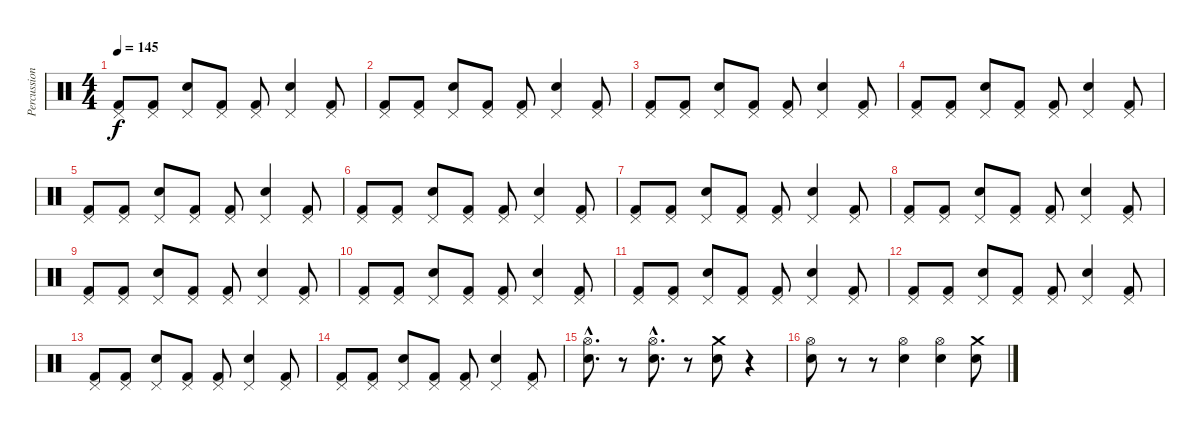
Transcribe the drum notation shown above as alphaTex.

\track ("Percussion" "Percussion") {instrument percussion}
\staff {score}
\articulation defaults
\ts (4 4)
\tempo 145
\clef neutral
\ks c
("Pedal Hi-Hat (hit)" "Kick (hit) 2").8{dy f} ("Pedal Hi-Hat (hit)" "Kick (hit) 2").8 ("Pedal Hi-Hat (hit)" "Snare (hit) 2").8 ("Pedal Hi-Hat (hit)" "Kick (hit) 2").8 ("Pedal Hi-Hat (hit)" "Kick (hit) 2").8 ("Pedal Hi-Hat (hit)" "Snare (hit) 2").4 ("Pedal Hi-Hat (hit)" "Kick (hit) 2").8 |
("Pedal Hi-Hat (hit)" "Kick (hit) 2").8 ("Pedal Hi-Hat (hit)" "Kick (hit) 2").8 ("Pedal Hi-Hat (hit)" "Snare (hit) 2").8 ("Pedal Hi-Hat (hit)" "Kick (hit) 2").8 ("Pedal Hi-Hat (hit)" "Kick (hit) 2").8 ("Pedal Hi-Hat (hit)" "Snare (hit) 2").4 ("Pedal Hi-Hat (hit)" "Kick (hit) 2").8 |
("Pedal Hi-Hat (hit)" "Kick (hit) 2").8 ("Pedal Hi-Hat (hit)" "Kick (hit) 2").8 ("Pedal Hi-Hat (hit)" "Snare (hit) 2").8 ("Pedal Hi-Hat (hit)" "Kick (hit) 2").8 ("Pedal Hi-Hat (hit)" "Kick (hit) 2").8 ("Pedal Hi-Hat (hit)" "Snare (hit) 2").4 ("Pedal Hi-Hat (hit)" "Kick (hit) 2").8 |
("Pedal Hi-Hat (hit)" "Kick (hit) 2").8 ("Pedal Hi-Hat (hit)" "Kick (hit) 2").8 ("Pedal Hi-Hat (hit)" "Snare (hit) 2").8 ("Pedal Hi-Hat (hit)" "Kick (hit) 2").8 ("Pedal Hi-Hat (hit)" "Kick (hit) 2").8 ("Pedal Hi-Hat (hit)" "Snare (hit) 2").4 ("Pedal Hi-Hat (hit)" "Kick (hit) 2").8 |
("Pedal Hi-Hat (hit)" "Kick (hit) 2").8 ("Pedal Hi-Hat (hit)" "Kick (hit) 2").8 ("Pedal Hi-Hat (hit)" "Snare (hit) 2").8 ("Pedal Hi-Hat (hit)" "Kick (hit) 2").8 ("Pedal Hi-Hat (hit)" "Kick (hit) 2").8 ("Pedal Hi-Hat (hit)" "Snare (hit) 2").4 ("Pedal Hi-Hat (hit)" "Kick (hit) 2").8 |
("Pedal Hi-Hat (hit)" "Kick (hit) 2").8 ("Pedal Hi-Hat (hit)" "Kick (hit) 2").8 ("Pedal Hi-Hat (hit)" "Snare (hit) 2").8 ("Pedal Hi-Hat (hit)" "Kick (hit) 2").8 ("Pedal Hi-Hat (hit)" "Kick (hit) 2").8 ("Pedal Hi-Hat (hit)" "Snare (hit) 2").4 ("Pedal Hi-Hat (hit)" "Kick (hit) 2").8 |
("Pedal Hi-Hat (hit)" "Kick (hit) 2").8 ("Pedal Hi-Hat (hit)" "Kick (hit) 2").8 ("Pedal Hi-Hat (hit)" "Snare (hit) 2").8 ("Pedal Hi-Hat (hit)" "Kick (hit) 2").8 ("Pedal Hi-Hat (hit)" "Kick (hit) 2").8 ("Pedal Hi-Hat (hit)" "Snare (hit) 2").4 ("Pedal Hi-Hat (hit)" "Kick (hit) 2").8 |
("Pedal Hi-Hat (hit)" "Kick (hit) 2").8 ("Pedal Hi-Hat (hit)" "Kick (hit) 2").8 ("Pedal Hi-Hat (hit)" "Snare (hit) 2").8 ("Pedal Hi-Hat (hit)" "Kick (hit) 2").8 ("Pedal Hi-Hat (hit)" "Kick (hit) 2").8 ("Pedal Hi-Hat (hit)" "Snare (hit) 2").4 ("Pedal Hi-Hat (hit)" "Kick (hit) 2").8 |
("Pedal Hi-Hat (hit)" "Kick (hit) 2").8 ("Pedal Hi-Hat (hit)" "Kick (hit) 2").8 ("Pedal Hi-Hat (hit)" "Snare (hit) 2").8 ("Pedal Hi-Hat (hit)" "Kick (hit) 2").8 ("Pedal Hi-Hat (hit)" "Kick (hit) 2").8 ("Pedal Hi-Hat (hit)" "Snare (hit) 2").4 ("Pedal Hi-Hat (hit)" "Kick (hit) 2").8 |
("Pedal Hi-Hat (hit)" "Kick (hit) 2").8 ("Pedal Hi-Hat (hit)" "Kick (hit) 2").8 ("Pedal Hi-Hat (hit)" "Snare (hit) 2").8 ("Pedal Hi-Hat (hit)" "Kick (hit) 2").8 ("Pedal Hi-Hat (hit)" "Kick (hit) 2").8 ("Pedal Hi-Hat (hit)" "Snare (hit) 2").4 ("Pedal Hi-Hat (hit)" "Kick (hit) 2").8 |
("Pedal Hi-Hat (hit)" "Kick (hit) 2").8 ("Pedal Hi-Hat (hit)" "Kick (hit) 2").8 ("Pedal Hi-Hat (hit)" "Snare (hit) 2").8 ("Pedal Hi-Hat (hit)" "Kick (hit) 2").8 ("Pedal Hi-Hat (hit)" "Kick (hit) 2").8 ("Pedal Hi-Hat (hit)" "Snare (hit) 2").4 ("Pedal Hi-Hat (hit)" "Kick (hit) 2").8 |
("Pedal Hi-Hat (hit)" "Kick (hit) 2").8 ("Pedal Hi-Hat (hit)" "Kick (hit) 2").8 ("Pedal Hi-Hat (hit)" "Snare (hit) 2").8 ("Pedal Hi-Hat (hit)" "Kick (hit) 2").8 ("Pedal Hi-Hat (hit)" "Kick (hit) 2").8 ("Pedal Hi-Hat (hit)" "Snare (hit) 2").4 ("Pedal Hi-Hat (hit)" "Kick (hit) 2").8 |
("Pedal Hi-Hat (hit)" "Kick (hit) 2").8 ("Pedal Hi-Hat (hit)" "Kick (hit) 2").8 ("Pedal Hi-Hat (hit)" "Snare (hit) 2").8 ("Pedal Hi-Hat (hit)" "Kick (hit) 2").8 ("Pedal Hi-Hat (hit)" "Kick (hit) 2").8 ("Pedal Hi-Hat (hit)" "Snare (hit) 2").4 ("Pedal Hi-Hat (hit)" "Kick (hit) 2").8 |
("Pedal Hi-Hat (hit)" "Kick (hit) 2").8 ("Pedal Hi-Hat (hit)" "Kick (hit) 2").8 ("Pedal Hi-Hat (hit)" "Snare (hit) 2").8 ("Pedal Hi-Hat (hit)" "Kick (hit) 2").8 ("Pedal Hi-Hat (hit)" "Kick (hit) 2").8 ("Pedal Hi-Hat (hit)" "Snare (hit) 2").4 ("Pedal Hi-Hat (hit)" "Kick (hit) 2").8 |
("Hi-Hat (open)"{hac} "Snare (hit) 2"{hac}).8{d} r.8 ("Hi-Hat (open)"{hac} "Snare (hit) 2"{hac}).8{d} r.8 ("Crash medium (hit)" "Snare (hit) 2").8 r.4 |
("Hi-Hat (open)" "Snare (hit) 2").8 r.8 r.8 ("Hi-Hat (open)" "Snare (hit) 2").4 ("Hi-Hat (open)" "Snare (hit) 2").4 ("Crash medium (hit)" "Snare (hit) 2").8
